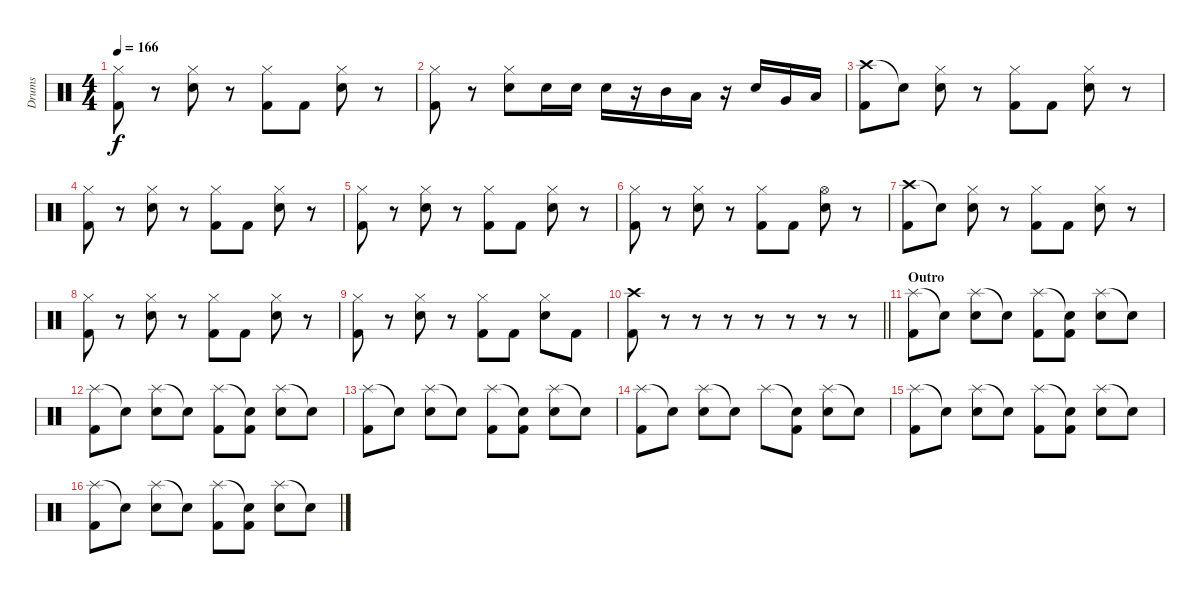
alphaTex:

\track ("Drums" "Drums") {instrument percussion}
\staff {score}
\articulation defaults
\ts (4 4)
\tempo 166
\clef neutral
\ks c
("Hi-Hat (closed)" "Kick (hit) 2").8{dy f} r.8 ("Hi-Hat (closed)" "Electric Snare (hit)").8 r.8 ("Hi-Hat (closed)" "Kick (hit) 2").8 "Kick (hit) 2".8 ("Hi-Hat (closed)" "Electric Snare (hit)").8 r.8 |
("Hi-Hat (closed)" "Kick (hit) 2").8 r.8 ("Hi-Hat (closed)" "Electric Snare (hit)").8 "Electric Snare (hit)".16 "Electric Snare (hit)".16 "Electric Snare (hit)".16 r.16 "Mid Tom (hit)".16 "Low Tom (hit)".16 r.16 "Electric Snare (hit)".16 "Very Low Tom (hit)".16 "Low Floor Tom (hit)".16 |
("Crash high (hit)" "Kick (hit) 2").8 "Snare (hit)"{t}.8 ("Hi-Hat (closed)" "Electric Snare (hit)").8 r.8 ("Hi-Hat (closed)" "Kick (hit) 2").8 "Kick (hit) 2".8 ("Hi-Hat (closed)" "Electric Snare (hit)").8 r.8 |
("Hi-Hat (closed)" "Kick (hit) 2").8 r.8 ("Hi-Hat (closed)" "Electric Snare (hit)").8 r.8 ("Hi-Hat (closed)" "Kick (hit) 2").8 "Kick (hit) 2".8 ("Hi-Hat (closed)" "Electric Snare (hit)").8 r.8 |
("Hi-Hat (closed)" "Kick (hit) 2").8 r.8 ("Hi-Hat (closed)" "Electric Snare (hit)").8 r.8 ("Hi-Hat (closed)" "Kick (hit) 2").8 "Kick (hit) 2".8 ("Hi-Hat (closed)" "Electric Snare (hit)").8 r.8 |
("Hi-Hat (closed)" "Kick (hit) 2").8 r.8 ("Hi-Hat (closed)" "Electric Snare (hit)").8 r.8 ("Hi-Hat (closed)" "Kick (hit) 2").8 "Kick (hit) 2".8 ("Hi-Hat (open)" "Electric Snare (hit)").8 r.8 |
("Crash high (hit)" "Kick (hit) 2").8 "Snare (hit)"{t}.8 ("Hi-Hat (closed)" "Electric Snare (hit)").8 r.8 ("Hi-Hat (closed)" "Kick (hit) 2").8 "Kick (hit) 2".8 ("Hi-Hat (closed)" "Electric Snare (hit)").8 r.8 |
("Hi-Hat (closed)" "Kick (hit) 2").8 r.8 ("Hi-Hat (closed)" "Electric Snare (hit)").8 r.8 ("Hi-Hat (closed)" "Kick (hit) 2").8 "Kick (hit) 2".8 ("Hi-Hat (closed)" "Electric Snare (hit)").8 r.8 |
("Hi-Hat (closed)" "Kick (hit) 2").8 r.8 ("Hi-Hat (closed)" "Electric Snare (hit)").8 r.8 ("Hi-Hat (closed)" "Kick (hit) 2").8 "Kick (hit) 2".8 ("Hi-Hat (closed)" "Electric Snare (hit)").8 "Kick (hit) 2".8 |
\barLineRight lightlight
("Kick (hit) 2" "Crash high (hit)").8 r.8 r.8 r.8 r.8 r.8 r.8 r.8 |
\section ("" "Outro")
("Splash (hit)" "Kick (hit) 2").8 "Snare (hit)"{t}.8 ("Splash (hit)" "Electric Snare (hit)").8 "Snare (hit)"{t}.8 ("Splash (hit)" "Kick (hit) 2").8 ("Snare (hit)"{t} "Kick (hit) 2").8 ("Splash (hit)" "Electric Snare (hit)").8 "Snare (hit)"{t}.8 |
("Splash (hit)" "Kick (hit) 2").8 "Snare (hit)"{t}.8 ("Splash (hit)" "Electric Snare (hit)").8 "Snare (hit)"{t}.8 ("Splash (hit)" "Kick (hit) 2").8 ("Snare (hit)"{t} "Kick (hit) 2").8 ("Splash (hit)" "Electric Snare (hit)").8 "Snare (hit)"{t}.8 |
("Splash (hit)" "Kick (hit) 2").8 "Snare (hit)"{t}.8 ("Splash (hit)" "Electric Snare (hit)").8 "Snare (hit)"{t}.8 ("Splash (hit)" "Kick (hit) 2").8 ("Snare (hit)"{t} "Kick (hit) 2").8 ("Splash (hit)" "Electric Snare (hit)").8 "Snare (hit)"{t}.8 |
("Splash (hit)" "Kick (hit) 2").8 "Snare (hit)"{t}.8 ("Splash (hit)" "Electric Snare (hit)").8 "Snare (hit)"{t}.8 "Splash (hit)".8 ("Snare (hit)"{t} "Kick (hit) 2").8 ("Splash (hit)" "Electric Snare (hit)").8 "Snare (hit)"{t}.8 |
("Splash (hit)" "Kick (hit) 2").8 "Snare (hit)"{t}.8 ("Splash (hit)" "Electric Snare (hit)").8 "Snare (hit)"{t}.8 ("Splash (hit)" "Kick (hit) 2").8 ("Snare (hit)"{t} "Kick (hit) 2").8 ("Splash (hit)" "Electric Snare (hit)").8 "Snare (hit)"{t}.8 |
("Splash (hit)" "Kick (hit) 2").8 "Snare (hit)"{t}.8 ("Splash (hit)" "Electric Snare (hit)").8 "Snare (hit)"{t}.8 ("Splash (hit)" "Kick (hit) 2").8 ("Snare (hit)"{t} "Kick (hit) 2").8 ("Splash (hit)" "Electric Snare (hit)").8 "Snare (hit)"{t}.8
